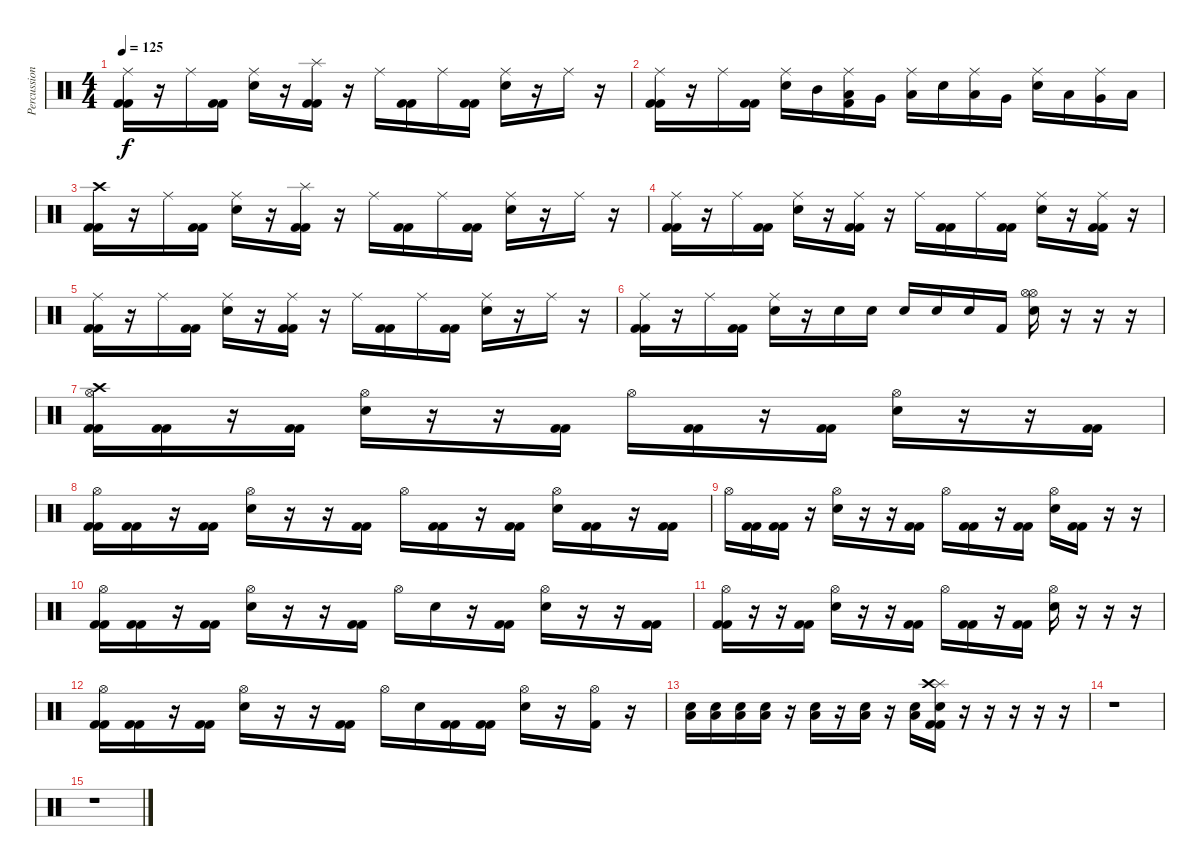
\track ("Percussion" "Percussion") {instrument percussion}
\staff {score}
\articulation defaults
\ts (4 4)
\tempo 125
\clef neutral
\ks c
("Ride (middle)" "Kick (hit) 2" "Kick (hit) 2").16{dy f} r.16 "Ride (middle)".16 ("Kick (hit) 2" "Kick (hit) 2").16 ("Ride (middle)" "Electric Snare (hit)").16 r.16 ("Splash (hit)" "Kick (hit) 2" "Kick (hit) 2").16 r.16 "Ride (middle)".16 ("Kick (hit) 2" "Kick (hit) 2").16 "Ride (middle)".16 ("Kick (hit) 2" "Kick (hit) 2").16 ("Ride (middle)" "Electric Snare (hit)").16 r.16 "Ride (middle)".16 r.16 |
("Ride (middle)" "Kick (hit) 2" "Kick (hit) 2").16 r.16 "Ride (middle)".16 ("Kick (hit) 2" "Kick (hit) 2").16 ("Ride (middle)" "Electric Snare (hit)").16 "Mid Tom (hit)".16 ("Ride (middle)" "Low Tom (hit)" "Kick (hit) 2").16 "Very Low Tom (hit)".16 ("Ride (middle)" "Low Floor Tom (hit)").16 "Electric Snare (hit)".16 ("Ride (middle)" "Low Tom (hit)").16 "Very Low Tom (hit)".16 ("Ride (middle)" "Electric Snare (hit)").16 "Low Tom (hit)".16 ("Ride (middle)" "Very Low Tom (hit)").16 "Low Floor Tom (hit)".16 |
("Crash high (hit)" "Kick (hit) 2" "Kick (hit) 2").16 r.16 "Ride (middle)".16 ("Kick (hit) 2" "Kick (hit) 2").16 ("Ride (middle)" "Electric Snare (hit)").16 r.16 ("Splash (hit)" "Kick (hit) 2" "Kick (hit) 2").16 r.16 "Ride (middle)".16 ("Kick (hit) 2" "Kick (hit) 2").16 "Ride (middle)".16 ("Kick (hit) 2" "Kick (hit) 2").16 ("Ride (middle)" "Electric Snare (hit)").16 r.16 "Ride (middle)".16 r.16 |
("Ride (middle)" "Kick (hit) 2" "Kick (hit) 2").16 r.16 "Ride (middle)".16 ("Kick (hit) 2" "Kick (hit) 2").16 ("Ride (middle)" "Electric Snare (hit)").16 r.16 ("Ride (middle)" "Kick (hit) 2" "Kick (hit) 2").16 r.16 "Ride (middle)".16 ("Kick (hit) 2" "Kick (hit) 2").16 "Ride (middle)".16 ("Kick (hit) 2" "Kick (hit) 2").16 ("Ride (middle)" "Electric Snare (hit)").16 r.16 ("Ride (middle)" "Kick (hit) 2" "Kick (hit) 2").16 r.16 |
("Ride (middle)" "Kick (hit) 2" "Kick (hit) 2").16 r.16 "Ride (middle)".16 ("Kick (hit) 2" "Kick (hit) 2").16 ("Ride (middle)" "Electric Snare (hit)").16 r.16 ("Ride (middle)" "Kick (hit) 2" "Kick (hit) 2").16 r.16 "Ride (middle)".16 ("Kick (hit) 2" "Kick (hit) 2").16 "Ride (middle)".16 ("Kick (hit) 2" "Kick (hit) 2").16 ("Ride (middle)" "Electric Snare (hit)").16 r.16 "Ride (middle)".16 r.16 |
("Ride (middle)" "Kick (hit) 2" "Kick (hit) 2").16 r.16 "Ride (middle)".16 ("Kick (hit) 2" "Kick (hit) 2").16 ("Ride (middle)" "Electric Snare (hit)").16 r.16 "Electric Snare (hit)".16 "Electric Snare (hit)".16 "Electric Snare (hit)".16 "Electric Snare (hit)".16 "Electric Snare (hit)".16 "Kick (hit) 2".16 ("Hi-Hat (open)" "Hi-Hat (open)" "Electric Snare (hit)").16 r.16 r.16 r.16 |
("Hi-Hat (open)" "Crash high (hit)" "Kick (hit) 2" "Kick (hit) 2").16 ("Kick (hit) 2" "Kick (hit) 2").16 r.16 ("Kick (hit) 2" "Kick (hit) 2").16 ("Hi-Hat (open)" "Electric Snare (hit)").16 r.16 r.16 ("Kick (hit) 2" "Kick (hit) 2").16 "Hi-Hat (open)".16 ("Kick (hit) 2" "Kick (hit) 2").16 r.16 ("Kick (hit) 2" "Kick (hit) 2").16 ("Hi-Hat (open)" "Electric Snare (hit)").16 r.16 r.16 ("Kick (hit) 2" "Kick (hit) 2").16 |
("Hi-Hat (open)" "Kick (hit) 2" "Kick (hit) 2").16 ("Kick (hit) 2" "Kick (hit) 2").16 r.16 ("Kick (hit) 2" "Kick (hit) 2").16 ("Hi-Hat (open)" "Electric Snare (hit)").16 r.16 r.16 ("Kick (hit) 2" "Kick (hit) 2").16 "Hi-Hat (open)".16 ("Kick (hit) 2" "Kick (hit) 2").16 r.16 ("Kick (hit) 2" "Kick (hit) 2").16 ("Hi-Hat (open)" "Electric Snare (hit)").16 ("Kick (hit) 2" "Kick (hit) 2").16 r.16 ("Kick (hit) 2" "Kick (hit) 2").16 |
"Hi-Hat (open)".16 ("Kick (hit) 2" "Kick (hit) 2").16 ("Kick (hit) 2" "Kick (hit) 2").16 r.16 ("Hi-Hat (open)" "Electric Snare (hit)").16 r.16 r.16 ("Kick (hit) 2" "Kick (hit) 2").16 "Hi-Hat (open)".16 ("Kick (hit) 2" "Kick (hit) 2").16 r.16 ("Kick (hit) 2" "Kick (hit) 2").16 ("Hi-Hat (open)" "Electric Snare (hit)").16 ("Kick (hit) 2" "Kick (hit) 2").16 r.16 r.16 |
("Hi-Hat (open)" "Kick (hit) 2" "Kick (hit) 2").16 ("Kick (hit) 2" "Kick (hit) 2").16 r.16 ("Kick (hit) 2" "Kick (hit) 2").16 ("Hi-Hat (open)" "Electric Snare (hit)").16 r.16 r.16 ("Kick (hit) 2" "Kick (hit) 2").16 "Hi-Hat (open)".16 "Electric Snare (hit)".16 r.16 ("Kick (hit) 2" "Kick (hit) 2").16 ("Hi-Hat (open)" "Electric Snare (hit)").16 r.16 r.16 ("Kick (hit) 2" "Kick (hit) 2").16 |
("Hi-Hat (open)" "Kick (hit) 2" "Kick (hit) 2").16 r.16 r.16 ("Kick (hit) 2" "Kick (hit) 2").16 ("Hi-Hat (open)" "Electric Snare (hit)").16 r.16 r.16 ("Kick (hit) 2" "Kick (hit) 2").16 "Hi-Hat (open)".16 ("Kick (hit) 2" "Kick (hit) 2").16 r.16 ("Kick (hit) 2" "Kick (hit) 2").16 ("Hi-Hat (open)" "Electric Snare (hit)").16 r.16 r.16 r.16 |
("Hi-Hat (open)" "Kick (hit) 2" "Kick (hit) 2").16 ("Kick (hit) 2" "Kick (hit) 2").16 r.16 ("Kick (hit) 2" "Kick (hit) 2").16 ("Hi-Hat (open)" "Electric Snare (hit)").16 r.16 r.16 ("Kick (hit) 2" "Kick (hit) 2").16 "Hi-Hat (open)".16 "Electric Snare (hit)".16 ("Kick (hit) 2" "Kick (hit) 2").16 ("Kick (hit) 2" "Kick (hit) 2").16 ("Hi-Hat (open)" "Electric Snare (hit)").16 r.16 ("Kick (hit) 2" "Hi-Hat (open)").16 r.16 |
("Low Floor Tom (hit)" "Electric Snare (hit)").16 ("Low Floor Tom (hit)" "Electric Snare (hit)").16 ("Low Floor Tom (hit)" "Electric Snare (hit)").16 ("Low Floor Tom (hit)" "Electric Snare (hit)").16 r.16 ("Low Floor Tom (hit)" "Electric Snare (hit)").16 r.16 ("Low Floor Tom (hit)" "Electric Snare (hit)").16 r.16 ("Low Floor Tom (hit)" "Electric Snare (hit)").16 ("Splash (hit)" "Crash high (hit)" "Kick (hit) 2" "Kick (hit) 2" "Electric Snare (hit)").16 r.16 r.16 r.16 r.16 r.16 |
r.1 |
r.1
